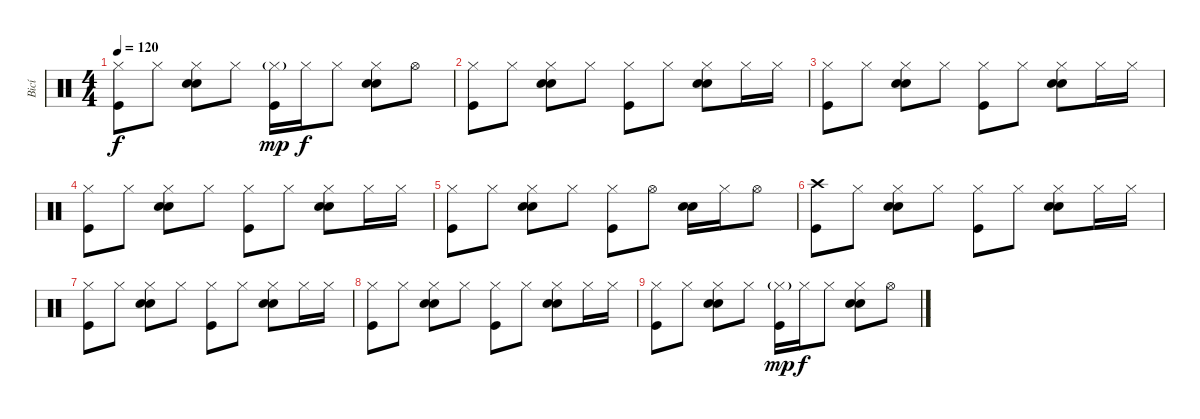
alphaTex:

\track ("Bicí" "Bicí") {instrument percussion}
\staff {score}
\articulation defaults
\ts (4 4)
\tempo 120
\clef neutral
\ks c
("Hi-Hat (closed)" "Kick (hit)").8{dy f} "Hi-Hat (closed)".8 ("Hi-Hat (closed)" "Hand Clap (hit)" "Electric Snare (hit)").8 "Hi-Hat (closed)".8 ("Hi-Hat (closed)"{g} "Kick (hit)").16{dy mp} "Hi-Hat (closed)".16{dy f} "Hi-Hat (closed)".8 ("Hi-Hat (closed)" "Hand Clap (hit)" "Electric Snare (hit)").8 "Hi-Hat (open)".8 |
("Hi-Hat (closed)" "Kick (hit)").8 "Hi-Hat (closed)".8 ("Hi-Hat (closed)" "Hand Clap (hit)" "Electric Snare (hit)").8 "Hi-Hat (closed)".8 ("Hi-Hat (closed)" "Kick (hit)").8 "Hi-Hat (closed)".8 ("Hi-Hat (closed)" "Hand Clap (hit)" "Electric Snare (hit)").8 "Hi-Hat (closed)".16 "Hi-Hat (closed)".16 |
("Hi-Hat (closed)" "Kick (hit)").8 "Hi-Hat (closed)".8 ("Hi-Hat (closed)" "Hand Clap (hit)" "Electric Snare (hit)").8 "Hi-Hat (closed)".8 ("Hi-Hat (closed)" "Kick (hit)").8 "Hi-Hat (closed)".8 ("Hi-Hat (closed)" "Hand Clap (hit)" "Electric Snare (hit)").8 "Hi-Hat (closed)".16 "Hi-Hat (closed)".16 |
("Hi-Hat (closed)" "Kick (hit)").8 "Hi-Hat (closed)".8 ("Hi-Hat (closed)" "Hand Clap (hit)" "Electric Snare (hit)").8 "Hi-Hat (closed)".8 ("Hi-Hat (closed)" "Kick (hit)").8 "Hi-Hat (closed)".8 ("Hi-Hat (closed)" "Hand Clap (hit)" "Electric Snare (hit)").8 "Hi-Hat (closed)".16 "Hi-Hat (closed)".16 |
("Hi-Hat (closed)" "Kick (hit)").8 "Hi-Hat (closed)".8 ("Hi-Hat (closed)" "Hand Clap (hit)" "Electric Snare (hit)").8 "Hi-Hat (closed)".8 ("Hi-Hat (closed)" "Kick (hit)").8 "Hi-Hat (open)".8 ("Hand Clap (hit)" "Electric Snare (hit)").16 "Hi-Hat (closed)".16 "Hi-Hat (open)".8 |
("Crash high (hit)" "Kick (hit)").8 "Hi-Hat (closed)".8 ("Hi-Hat (closed)" "Hand Clap (hit)" "Electric Snare (hit)").8 "Hi-Hat (closed)".8 ("Hi-Hat (closed)" "Kick (hit)").8 "Hi-Hat (closed)".8 ("Hi-Hat (closed)" "Hand Clap (hit)" "Electric Snare (hit)").8 "Hi-Hat (closed)".16 "Hi-Hat (closed)".16 |
("Hi-Hat (closed)" "Kick (hit)").8 "Hi-Hat (closed)".8 ("Hi-Hat (closed)" "Hand Clap (hit)" "Electric Snare (hit)").8 "Hi-Hat (closed)".8 ("Hi-Hat (closed)" "Kick (hit)").8 "Hi-Hat (closed)".8 ("Hi-Hat (closed)" "Hand Clap (hit)" "Electric Snare (hit)").8 "Hi-Hat (closed)".16 "Hi-Hat (closed)".16 |
("Hi-Hat (closed)" "Kick (hit)").8 "Hi-Hat (closed)".8 ("Hi-Hat (closed)" "Hand Clap (hit)" "Electric Snare (hit)").8 "Hi-Hat (closed)".8 ("Hi-Hat (closed)" "Kick (hit)").8 "Hi-Hat (closed)".8 ("Hi-Hat (closed)" "Hand Clap (hit)" "Electric Snare (hit)").8 "Hi-Hat (closed)".16 "Hi-Hat (closed)".16 |
("Hi-Hat (closed)" "Kick (hit)").8 "Hi-Hat (closed)".8 ("Hi-Hat (closed)" "Hand Clap (hit)" "Electric Snare (hit)").8 "Hi-Hat (closed)".8 ("Hi-Hat (closed)"{g} "Kick (hit)").16{dy mp} "Hi-Hat (closed)".16{dy f} "Hi-Hat (closed)".8 ("Hi-Hat (closed)" "Hand Clap (hit)" "Electric Snare (hit)").8 "Hi-Hat (open)".8
